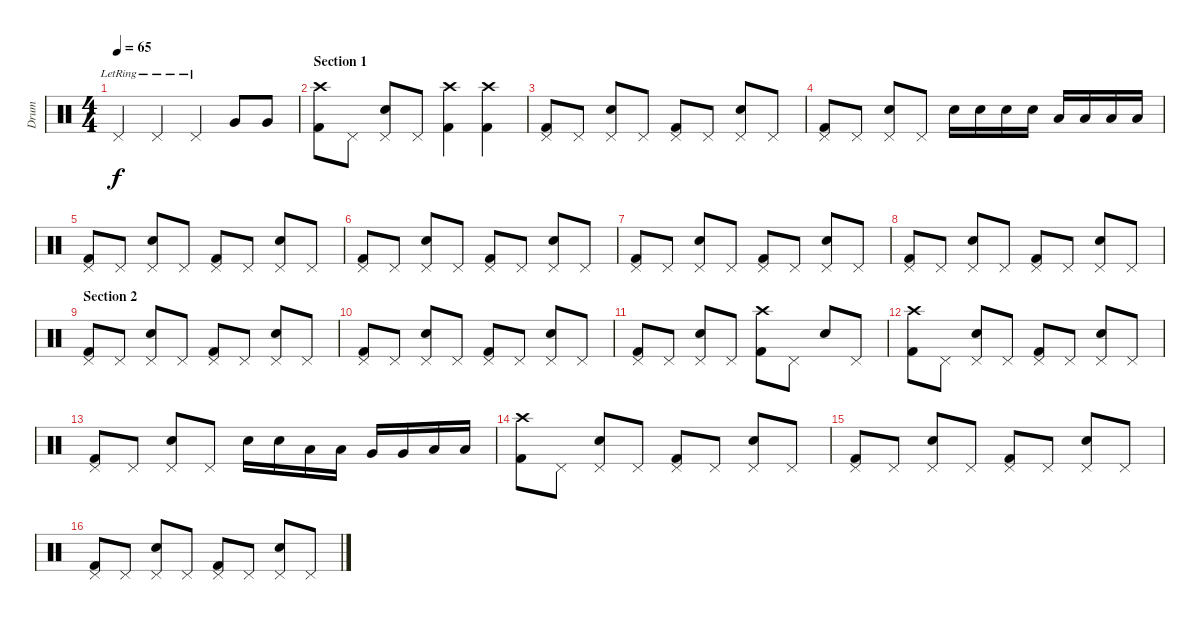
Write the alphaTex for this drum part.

\track ("Drum" "Drum") {instrument percussion}
\staff {score}
\articulation defaults
\ts (4 4)
\tempo 65
\clef neutral
\ks c "Pedal Hi-Hat (hit)"{lr}.4{dy f} "Pedal Hi-Hat (hit)"{lr}.4 "Pedal Hi-Hat (hit)"{lr}.4 "Very Low Tom (hit)".8 "Very Low Tom (hit)".8
|
\section ("" "Section 1")
("Crash high (hit)" "Kick (hit) 2").8 "Pedal Hi-Hat (hit)".8 ("Pedal Hi-Hat (hit)" "Snare (hit) 2").8 "Pedal Hi-Hat (hit)".8 ("Crash high (hit)" "Kick (hit) 2").4 ("Crash high (hit)" "Kick (hit) 2").4 |
("Pedal Hi-Hat (hit)" "Kick (hit) 2").8 "Pedal Hi-Hat (hit)".8 ("Pedal Hi-Hat (hit)" "Snare (hit) 2").8 "Pedal Hi-Hat (hit)".8 ("Pedal Hi-Hat (hit)" "Kick (hit) 2").8 "Pedal Hi-Hat (hit)".8 ("Pedal Hi-Hat (hit)" "Snare (hit) 2").8 "Pedal Hi-Hat (hit)".8 |
("Pedal Hi-Hat (hit)" "Kick (hit) 2").8 "Pedal Hi-Hat (hit)".8 ("Pedal Hi-Hat (hit)" "Snare (hit) 2").8 "Pedal Hi-Hat (hit)".8 "Snare (hit) 2".16 "Snare (hit) 2".16 "Snare (hit) 2".16 "Snare (hit) 2".16 "Low Tom (hit)".16 "Low Tom (hit)".16 "Low Tom (hit)".16 "Low Tom (hit)".16 |
("Pedal Hi-Hat (hit)" "Kick (hit) 2").8 "Pedal Hi-Hat (hit)".8 ("Pedal Hi-Hat (hit)" "Snare (hit) 2").8 "Pedal Hi-Hat (hit)".8 ("Pedal Hi-Hat (hit)" "Kick (hit) 2").8 "Pedal Hi-Hat (hit)".8 ("Pedal Hi-Hat (hit)" "Snare (hit) 2").8 "Pedal Hi-Hat (hit)".8 |
("Pedal Hi-Hat (hit)" "Kick (hit) 2").8 "Pedal Hi-Hat (hit)".8 ("Pedal Hi-Hat (hit)" "Snare (hit) 2").8 "Pedal Hi-Hat (hit)".8 ("Pedal Hi-Hat (hit)" "Kick (hit) 2").8 "Pedal Hi-Hat (hit)".8 ("Pedal Hi-Hat (hit)" "Snare (hit) 2").8 "Pedal Hi-Hat (hit)".8 |
("Pedal Hi-Hat (hit)" "Kick (hit) 2").8 "Pedal Hi-Hat (hit)".8 ("Pedal Hi-Hat (hit)" "Snare (hit) 2").8 "Pedal Hi-Hat (hit)".8 ("Pedal Hi-Hat (hit)" "Kick (hit) 2").8 "Pedal Hi-Hat (hit)".8 ("Pedal Hi-Hat (hit)" "Snare (hit) 2").8 "Pedal Hi-Hat (hit)".8 |
("Pedal Hi-Hat (hit)" "Kick (hit) 2").8 "Pedal Hi-Hat (hit)".8 ("Pedal Hi-Hat (hit)" "Snare (hit) 2").8 "Pedal Hi-Hat (hit)".8 ("Pedal Hi-Hat (hit)" "Kick (hit) 2").8 "Pedal Hi-Hat (hit)".8 ("Pedal Hi-Hat (hit)" "Snare (hit) 2").8 "Pedal Hi-Hat (hit)".8 |
\section ("" "Section 2")
("Pedal Hi-Hat (hit)" "Kick (hit) 2").8 "Pedal Hi-Hat (hit)".8 ("Pedal Hi-Hat (hit)" "Snare (hit) 2").8 "Pedal Hi-Hat (hit)".8 ("Pedal Hi-Hat (hit)" "Kick (hit) 2").8 "Pedal Hi-Hat (hit)".8 ("Pedal Hi-Hat (hit)" "Snare (hit) 2").8 "Pedal Hi-Hat (hit)".8 |
("Pedal Hi-Hat (hit)" "Kick (hit) 2").8 "Pedal Hi-Hat (hit)".8 ("Pedal Hi-Hat (hit)" "Snare (hit) 2").8 "Pedal Hi-Hat (hit)".8 ("Pedal Hi-Hat (hit)" "Kick (hit) 2").8 "Pedal Hi-Hat (hit)".8 ("Pedal Hi-Hat (hit)" "Snare (hit) 2").8 "Pedal Hi-Hat (hit)".8 |
("Pedal Hi-Hat (hit)" "Kick (hit) 2").8 "Pedal Hi-Hat (hit)".8 ("Pedal Hi-Hat (hit)" "Snare (hit) 2").8 "Pedal Hi-Hat (hit)".8 ("Crash high (hit)" "Kick (hit) 2").8 "Pedal Hi-Hat (hit)".8 "Snare (hit) 2".8 "Pedal Hi-Hat (hit)".8 |
("Crash high (hit)" "Kick (hit) 2").8 "Pedal Hi-Hat (hit)".8 ("Pedal Hi-Hat (hit)" "Snare (hit) 2").8 "Pedal Hi-Hat (hit)".8 ("Pedal Hi-Hat (hit)" "Kick (hit) 2").8 "Pedal Hi-Hat (hit)".8 ("Pedal Hi-Hat (hit)" "Snare (hit) 2").8 "Pedal Hi-Hat (hit)".8 |
("Pedal Hi-Hat (hit)" "Kick (hit) 2").8 "Pedal Hi-Hat (hit)".8 ("Pedal Hi-Hat (hit)" "Snare (hit) 2").8 "Pedal Hi-Hat (hit)".8 "Snare (hit) 2".16 "Snare (hit) 2".16 "Low Tom (hit)".16 "Low Tom (hit)".16 "Very Low Tom (hit)".16 "Very Low Tom (hit)".16 "Low Floor Tom (hit)".16 "Low Floor Tom (hit)".16 |
("Crash high (hit)" "Kick (hit) 2").8 "Pedal Hi-Hat (hit)".8 ("Pedal Hi-Hat (hit)" "Snare (hit) 2").8 "Pedal Hi-Hat (hit)".8 ("Pedal Hi-Hat (hit)" "Kick (hit) 2").8 "Pedal Hi-Hat (hit)".8 ("Pedal Hi-Hat (hit)" "Snare (hit) 2").8 "Pedal Hi-Hat (hit)".8 |
("Pedal Hi-Hat (hit)" "Kick (hit) 2").8 "Pedal Hi-Hat (hit)".8 ("Pedal Hi-Hat (hit)" "Snare (hit) 2").8 "Pedal Hi-Hat (hit)".8 ("Pedal Hi-Hat (hit)" "Kick (hit) 2").8 "Pedal Hi-Hat (hit)".8 ("Pedal Hi-Hat (hit)" "Snare (hit) 2").8 "Pedal Hi-Hat (hit)".8 |
("Pedal Hi-Hat (hit)" "Kick (hit) 2").8 "Pedal Hi-Hat (hit)".8 ("Pedal Hi-Hat (hit)" "Snare (hit) 2").8 "Pedal Hi-Hat (hit)".8 ("Pedal Hi-Hat (hit)" "Kick (hit) 2").8 "Pedal Hi-Hat (hit)".8 ("Pedal Hi-Hat (hit)" "Snare (hit) 2").8 "Pedal Hi-Hat (hit)".8
